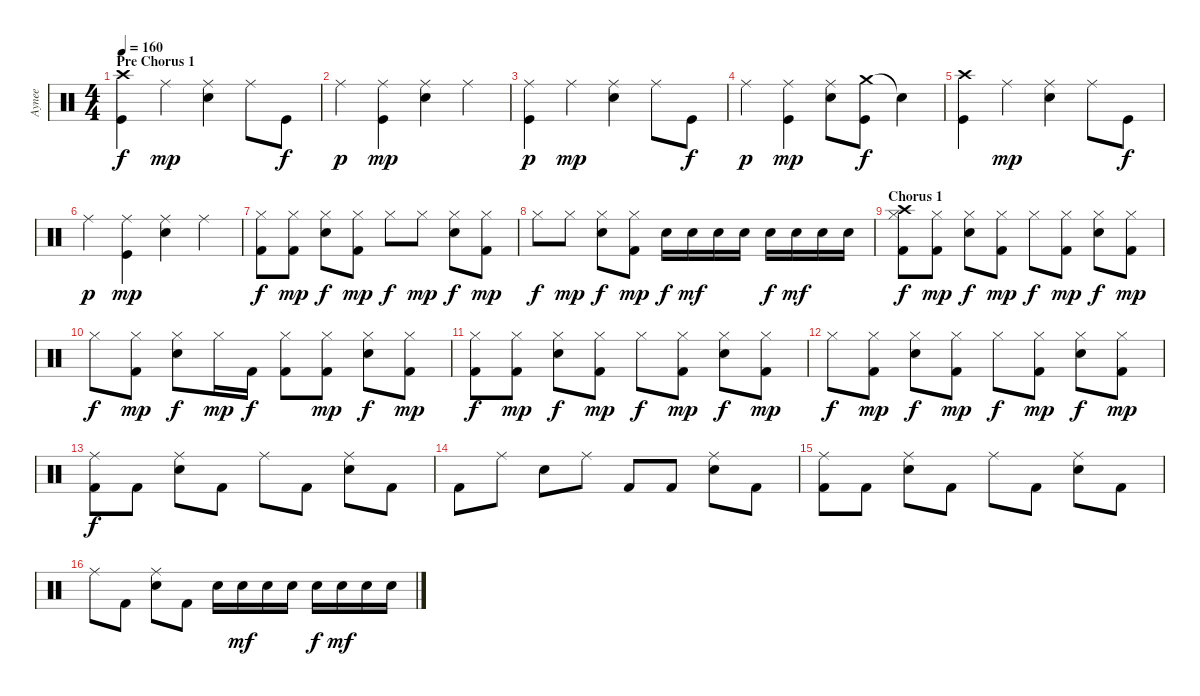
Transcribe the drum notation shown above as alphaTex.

\track ("Aynee " "Aynee ") {instrument percussion}
\staff {score}
\articulation defaults
\ts (4 4)
\section ("" "Pre Chorus 1")
\tempo 160
\clef neutral
\ks c
("Crash high (hit)" "Kick (hit)").4{dy f} "Ride (middle)".4{dy mp} ("Ride (middle)" "Electric Snare (hit)").4 "Ride (middle)".8 "Kick (hit)".8{dy f} |
"Ride (middle)".4{dy p} ("Ride (middle)" "Kick (hit)").4{dy mp} ("Ride (middle)" "Electric Snare (hit)").4 "Ride (middle)".4 |
("Ride (middle)" "Kick (hit)").4{dy p} "Ride (middle)".4{dy mp} ("Ride (middle)" "Electric Snare (hit)").4 "Ride (middle)".8 "Kick (hit)".8{dy f} |
"Ride (middle)".4{dy p} ("Ride (middle)" "Kick (hit)").4{dy mp} ("Ride (middle)" "Electric Snare (hit)").8 ("Crash medium (hit)" "Kick (hit)").8{dy f} "Snare (hit)"{t}.4 |
("Crash high (hit)" "Kick (hit)").4 "Ride (middle)".4{dy mp} ("Ride (middle)" "Electric Snare (hit)").4 "Ride (middle)".8 "Kick (hit)".8{dy f} |
"Ride (middle)".4{dy p} ("Ride (middle)" "Kick (hit)").4{dy mp} ("Ride (middle)" "Electric Snare (hit)").4 "Ride (middle)".4 |
("Hi-Hat (closed)" "Kick (hit) 2").8{dy f} ("Hi-Hat (closed)" "Kick (hit) 2").8{dy mp} ("Hi-Hat (closed)" "Electric Snare (hit)").8{dy f} ("Hi-Hat (closed)" "Kick (hit) 2").8{dy mp} "Hi-Hat (closed)".8{dy f} "Hi-Hat (closed)".8{dy mp} ("Hi-Hat (closed)" "Electric Snare (hit)").8{dy f} ("Hi-Hat (closed)" "Kick (hit) 2").8{dy mp} |
"Hi-Hat (closed)".8{dy f} "Hi-Hat (closed)".8{dy mp} ("Hi-Hat (closed)" "Electric Snare (hit)").8{dy f} ("Hi-Hat (closed)" "Kick (hit) 2").8{dy mp} "Electric Snare (hit)".16{dy f} "Electric Snare (hit)".16{dy mf} "Electric Snare (hit)".16 "Electric Snare (hit)".16 "Electric Snare (hit)".16{dy f} "Electric Snare (hit)".16{dy mf} "Electric Snare (hit)".16 "Electric Snare (hit)".16 |
\section ("" "Chorus 1")
("Crash high (hit)" "Hi-Hat (closed)" "Kick (hit) 2").8{dy f} ("Hi-Hat (closed)" "Kick (hit) 2").8{dy mp} ("Hi-Hat (closed)" "Electric Snare (hit)").8{dy f} ("Hi-Hat (closed)" "Kick (hit) 2").8{dy mp} "Hi-Hat (closed)".8{dy f} ("Hi-Hat (closed)" "Kick (hit) 2").8{dy mp} ("Hi-Hat (closed)" "Electric Snare (hit)").8{dy f} ("Hi-Hat (closed)" "Kick (hit) 2").8{dy mp} |
"Hi-Hat (closed)".8{dy f} ("Hi-Hat (closed)" "Kick (hit) 2").8{dy mp} ("Hi-Hat (closed)" "Electric Snare (hit)").8{dy f} "Hi-Hat (closed)".16{dy mp} "Kick (hit) 2".16{dy f} ("Hi-Hat (closed)" "Kick (hit) 2").8 ("Hi-Hat (closed)" "Kick (hit) 2").8{dy mp} ("Hi-Hat (closed)" "Electric Snare (hit)").8{dy f} ("Hi-Hat (closed)" "Kick (hit) 2").8{dy mp} |
("Hi-Hat (closed)" "Kick (hit) 2").8{dy f} ("Hi-Hat (closed)" "Kick (hit) 2").8{dy mp} ("Hi-Hat (closed)" "Electric Snare (hit)").8{dy f} ("Hi-Hat (closed)" "Kick (hit) 2").8{dy mp} "Hi-Hat (closed)".8{dy f} ("Hi-Hat (closed)" "Kick (hit) 2").8{dy mp} ("Hi-Hat (closed)" "Electric Snare (hit)").8{dy f} ("Hi-Hat (closed)" "Kick (hit) 2").8{dy mp} |
"Hi-Hat (closed)".8{dy f} ("Hi-Hat (closed)" "Kick (hit) 2").8{dy mp} ("Hi-Hat (closed)" "Electric Snare (hit)").8{dy f} ("Hi-Hat (closed)" "Kick (hit) 2").8{dy mp} "Hi-Hat (closed)".8{dy f} ("Hi-Hat (closed)" "Kick (hit) 2").8{dy mp} ("Hi-Hat (closed)" "Electric Snare (hit)").8{dy f} ("Hi-Hat (closed)" "Kick (hit) 2").8{dy mp} |
("Ride (middle)" "Kick (hit) 2").8{dy f} "Kick (hit) 2".8 ("Ride (middle)" "Electric Snare (hit)").8 "Kick (hit) 2".8 "Ride (middle)".8 "Kick (hit) 2".8 ("Ride (middle)" "Electric Snare (hit)").8 "Kick (hit) 2".8 |
"Kick (hit) 2".8 "Ride (middle)".8 "Electric Snare (hit)".8 "Ride (middle)".8 "Kick (hit) 2".8 "Kick (hit) 2".8 ("Ride (middle)" "Electric Snare (hit)").8 "Kick (hit) 2".8 |
("Ride (middle)" "Kick (hit) 2").8 "Kick (hit) 2".8 ("Ride (middle)" "Electric Snare (hit)").8 "Kick (hit) 2".8 "Ride (middle)".8 "Kick (hit) 2".8 ("Ride (middle)" "Electric Snare (hit)").8 "Kick (hit) 2".8 |
"Ride (middle)".8 "Kick (hit) 2".8 ("Ride (middle)" "Electric Snare (hit)").8 "Kick (hit) 2".8 "Electric Snare (hit)".16 "Electric Snare (hit)".16{dy mf} "Electric Snare (hit)".16 "Electric Snare (hit)".16 "Electric Snare (hit)".16{dy f} "Electric Snare (hit)".16{dy mf} "Electric Snare (hit)".16 "Electric Snare (hit)".16
